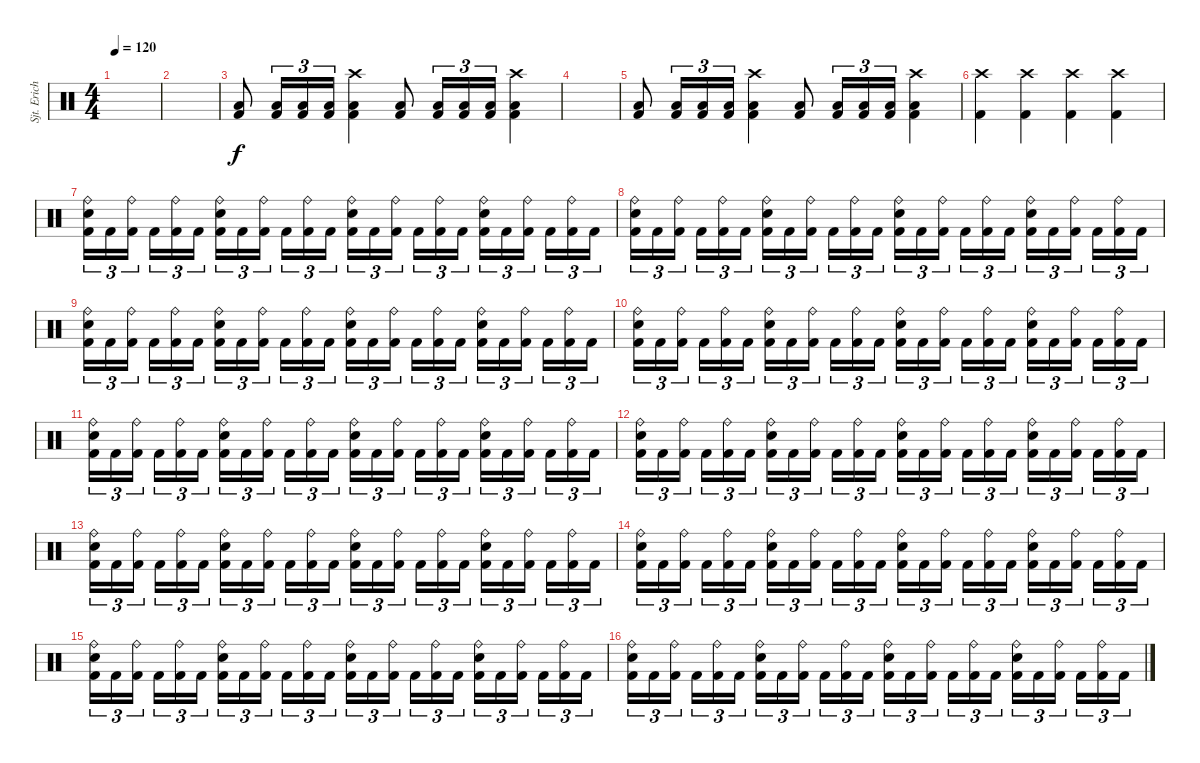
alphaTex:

\track ("Sjt. Erichsen" "Sjt. Erich") {instrument percussion}
\staff {score}
\articulation defaults
\ts (4 4)
\tempo 120
\clef neutral
\ks c
|
|
("Low Floor Tom (hit)" "Kick (hit) 2").8 ("Low Floor Tom (hit)" "Kick (hit) 2").16{tu (3 2)} ("Low Floor Tom (hit)" "Kick (hit) 2").16{tu (3 2)} ("Low Floor Tom (hit)" "Kick (hit) 2").16{tu (3 2)} ("Crash high (hit)" "Low Floor Tom (hit)" "Kick (hit) 2").4 ("Low Floor Tom (hit)" "Kick (hit) 2").8 ("Low Floor Tom (hit)" "Kick (hit) 2").16{tu (3 2)} ("Low Floor Tom (hit)" "Kick (hit) 2").16{tu (3 2)} ("Low Floor Tom (hit)" "Kick (hit) 2").16{tu (3 2)} ("Crash high (hit)" "Low Floor Tom (hit)" "Kick (hit) 2").4 |
|
("Low Floor Tom (hit)" "Kick (hit) 2").8 ("Low Floor Tom (hit)" "Kick (hit) 2").16{tu (3 2)} ("Low Floor Tom (hit)" "Kick (hit) 2").16{tu (3 2)} ("Low Floor Tom (hit)" "Kick (hit) 2").16{tu (3 2)} ("Crash high (hit)" "Low Floor Tom (hit)" "Kick (hit) 2").4 ("Low Floor Tom (hit)" "Kick (hit) 2").8 ("Low Floor Tom (hit)" "Kick (hit) 2").16{tu (3 2)} ("Low Floor Tom (hit)" "Kick (hit) 2").16{tu (3 2)} ("Low Floor Tom (hit)" "Kick (hit) 2").16{tu (3 2)} ("Crash high (hit)" "Low Floor Tom (hit)" "Kick (hit) 2").4 |
("Crash high (hit)" "Kick (hit) 2").4 ("Crash high (hit)" "Kick (hit) 2").4 ("Crash high (hit)" "Kick (hit) 2").4 ("Crash high (hit)" "Kick (hit) 2").4 |
("Ride (bell)" "Electric Snare (hit)" "Kick (hit) 2").16{tu (3 2)} "Kick (hit) 2".16{tu (3 2)} ("Ride (bell)" "Kick (hit) 2").16{tu (3 2)} "Kick (hit) 2".16{tu (3 2)} ("Ride (bell)" "Kick (hit) 2").16{tu (3 2)} "Kick (hit) 2".16{tu (3 2)} ("Ride (bell)" "Electric Snare (hit)" "Kick (hit) 2").16{tu (3 2)} "Kick (hit) 2".16{tu (3 2)} ("Ride (bell)" "Kick (hit) 2").16{tu (3 2)} "Kick (hit) 2".16{tu (3 2)} ("Ride (bell)" "Kick (hit) 2").16{tu (3 2)} "Kick (hit) 2".16{tu (3 2)} ("Ride (bell)" "Electric Snare (hit)" "Kick (hit) 2").16{tu (3 2)} "Kick (hit) 2".16{tu (3 2)} ("Ride (bell)" "Kick (hit) 2").16{tu (3 2)} "Kick (hit) 2".16{tu (3 2)} ("Ride (bell)" "Kick (hit) 2").16{tu (3 2)} "Kick (hit) 2".16{tu (3 2)} ("Ride (bell)" "Electric Snare (hit)" "Kick (hit) 2").16{tu (3 2)} "Kick (hit) 2".16{tu (3 2)} ("Ride (bell)" "Kick (hit) 2").16{tu (3 2)} "Kick (hit) 2".16{tu (3 2)} ("Ride (bell)" "Kick (hit) 2").16{tu (3 2)} "Kick (hit) 2".16{tu (3 2)} |
("Ride (bell)" "Electric Snare (hit)" "Kick (hit) 2").16{tu (3 2)} "Kick (hit) 2".16{tu (3 2)} ("Ride (bell)" "Kick (hit) 2").16{tu (3 2)} "Kick (hit) 2".16{tu (3 2)} ("Ride (bell)" "Kick (hit) 2").16{tu (3 2)} "Kick (hit) 2".16{tu (3 2)} ("Ride (bell)" "Electric Snare (hit)" "Kick (hit) 2").16{tu (3 2)} "Kick (hit) 2".16{tu (3 2)} ("Ride (bell)" "Kick (hit) 2").16{tu (3 2)} "Kick (hit) 2".16{tu (3 2)} ("Ride (bell)" "Kick (hit) 2").16{tu (3 2)} "Kick (hit) 2".16{tu (3 2)} ("Ride (bell)" "Electric Snare (hit)" "Kick (hit) 2").16{tu (3 2)} "Kick (hit) 2".16{tu (3 2)} ("Ride (bell)" "Kick (hit) 2").16{tu (3 2)} "Kick (hit) 2".16{tu (3 2)} ("Ride (bell)" "Kick (hit) 2").16{tu (3 2)} "Kick (hit) 2".16{tu (3 2)} ("Ride (bell)" "Electric Snare (hit)" "Kick (hit) 2").16{tu (3 2)} "Kick (hit) 2".16{tu (3 2)} ("Ride (bell)" "Kick (hit) 2").16{tu (3 2)} "Kick (hit) 2".16{tu (3 2)} ("Ride (bell)" "Kick (hit) 2").16{tu (3 2)} "Kick (hit) 2".16{tu (3 2)} |
("Ride (bell)" "Electric Snare (hit)" "Kick (hit) 2").16{tu (3 2)} "Kick (hit) 2".16{tu (3 2)} ("Ride (bell)" "Kick (hit) 2").16{tu (3 2)} "Kick (hit) 2".16{tu (3 2)} ("Ride (bell)" "Kick (hit) 2").16{tu (3 2)} "Kick (hit) 2".16{tu (3 2)} ("Ride (bell)" "Electric Snare (hit)" "Kick (hit) 2").16{tu (3 2)} "Kick (hit) 2".16{tu (3 2)} ("Ride (bell)" "Kick (hit) 2").16{tu (3 2)} "Kick (hit) 2".16{tu (3 2)} ("Ride (bell)" "Kick (hit) 2").16{tu (3 2)} "Kick (hit) 2".16{tu (3 2)} ("Ride (bell)" "Electric Snare (hit)" "Kick (hit) 2").16{tu (3 2)} "Kick (hit) 2".16{tu (3 2)} ("Ride (bell)" "Kick (hit) 2").16{tu (3 2)} "Kick (hit) 2".16{tu (3 2)} ("Ride (bell)" "Kick (hit) 2").16{tu (3 2)} "Kick (hit) 2".16{tu (3 2)} ("Ride (bell)" "Electric Snare (hit)" "Kick (hit) 2").16{tu (3 2)} "Kick (hit) 2".16{tu (3 2)} ("Ride (bell)" "Kick (hit) 2").16{tu (3 2)} "Kick (hit) 2".16{tu (3 2)} ("Ride (bell)" "Kick (hit) 2").16{tu (3 2)} "Kick (hit) 2".16{tu (3 2)} |
("Ride (bell)" "Electric Snare (hit)" "Kick (hit) 2").16{tu (3 2)} "Kick (hit) 2".16{tu (3 2)} ("Ride (bell)" "Kick (hit) 2").16{tu (3 2)} "Kick (hit) 2".16{tu (3 2)} ("Ride (bell)" "Kick (hit) 2").16{tu (3 2)} "Kick (hit) 2".16{tu (3 2)} ("Ride (bell)" "Electric Snare (hit)" "Kick (hit) 2").16{tu (3 2)} "Kick (hit) 2".16{tu (3 2)} ("Ride (bell)" "Kick (hit) 2").16{tu (3 2)} "Kick (hit) 2".16{tu (3 2)} ("Ride (bell)" "Kick (hit) 2").16{tu (3 2)} "Kick (hit) 2".16{tu (3 2)} ("Ride (bell)" "Electric Snare (hit)" "Kick (hit) 2").16{tu (3 2)} "Kick (hit) 2".16{tu (3 2)} ("Ride (bell)" "Kick (hit) 2").16{tu (3 2)} "Kick (hit) 2".16{tu (3 2)} ("Ride (bell)" "Kick (hit) 2").16{tu (3 2)} "Kick (hit) 2".16{tu (3 2)} ("Ride (bell)" "Electric Snare (hit)" "Kick (hit) 2").16{tu (3 2)} "Kick (hit) 2".16{tu (3 2)} ("Ride (bell)" "Kick (hit) 2").16{tu (3 2)} "Kick (hit) 2".16{tu (3 2)} ("Ride (bell)" "Kick (hit) 2").16{tu (3 2)} "Kick (hit) 2".16{tu (3 2)} |
("Ride (bell)" "Electric Snare (hit)" "Kick (hit) 2").16{tu (3 2)} "Kick (hit) 2".16{tu (3 2)} ("Ride (bell)" "Kick (hit) 2").16{tu (3 2)} "Kick (hit) 2".16{tu (3 2)} ("Ride (bell)" "Kick (hit) 2").16{tu (3 2)} "Kick (hit) 2".16{tu (3 2)} ("Ride (bell)" "Electric Snare (hit)" "Kick (hit) 2").16{tu (3 2)} "Kick (hit) 2".16{tu (3 2)} ("Ride (bell)" "Kick (hit) 2").16{tu (3 2)} "Kick (hit) 2".16{tu (3 2)} ("Ride (bell)" "Kick (hit) 2").16{tu (3 2)} "Kick (hit) 2".16{tu (3 2)} ("Ride (bell)" "Electric Snare (hit)" "Kick (hit) 2").16{tu (3 2)} "Kick (hit) 2".16{tu (3 2)} ("Ride (bell)" "Kick (hit) 2").16{tu (3 2)} "Kick (hit) 2".16{tu (3 2)} ("Ride (bell)" "Kick (hit) 2").16{tu (3 2)} "Kick (hit) 2".16{tu (3 2)} ("Ride (bell)" "Electric Snare (hit)" "Kick (hit) 2").16{tu (3 2)} "Kick (hit) 2".16{tu (3 2)} ("Ride (bell)" "Kick (hit) 2").16{tu (3 2)} "Kick (hit) 2".16{tu (3 2)} ("Ride (bell)" "Kick (hit) 2").16{tu (3 2)} "Kick (hit) 2".16{tu (3 2)} |
("Ride (bell)" "Electric Snare (hit)" "Kick (hit) 2").16{tu (3 2)} "Kick (hit) 2".16{tu (3 2)} ("Ride (bell)" "Kick (hit) 2").16{tu (3 2)} "Kick (hit) 2".16{tu (3 2)} ("Ride (bell)" "Kick (hit) 2").16{tu (3 2)} "Kick (hit) 2".16{tu (3 2)} ("Ride (bell)" "Electric Snare (hit)" "Kick (hit) 2").16{tu (3 2)} "Kick (hit) 2".16{tu (3 2)} ("Ride (bell)" "Kick (hit) 2").16{tu (3 2)} "Kick (hit) 2".16{tu (3 2)} ("Ride (bell)" "Kick (hit) 2").16{tu (3 2)} "Kick (hit) 2".16{tu (3 2)} ("Ride (bell)" "Electric Snare (hit)" "Kick (hit) 2").16{tu (3 2)} "Kick (hit) 2".16{tu (3 2)} ("Ride (bell)" "Kick (hit) 2").16{tu (3 2)} "Kick (hit) 2".16{tu (3 2)} ("Ride (bell)" "Kick (hit) 2").16{tu (3 2)} "Kick (hit) 2".16{tu (3 2)} ("Ride (bell)" "Electric Snare (hit)" "Kick (hit) 2").16{tu (3 2)} "Kick (hit) 2".16{tu (3 2)} ("Ride (bell)" "Kick (hit) 2").16{tu (3 2)} "Kick (hit) 2".16{tu (3 2)} ("Ride (bell)" "Kick (hit) 2").16{tu (3 2)} "Kick (hit) 2".16{tu (3 2)} |
("Ride (bell)" "Electric Snare (hit)" "Kick (hit) 2").16{tu (3 2)} "Kick (hit) 2".16{tu (3 2)} ("Ride (bell)" "Kick (hit) 2").16{tu (3 2)} "Kick (hit) 2".16{tu (3 2)} ("Ride (bell)" "Kick (hit) 2").16{tu (3 2)} "Kick (hit) 2".16{tu (3 2)} ("Ride (bell)" "Electric Snare (hit)" "Kick (hit) 2").16{tu (3 2)} "Kick (hit) 2".16{tu (3 2)} ("Ride (bell)" "Kick (hit) 2").16{tu (3 2)} "Kick (hit) 2".16{tu (3 2)} ("Ride (bell)" "Kick (hit) 2").16{tu (3 2)} "Kick (hit) 2".16{tu (3 2)} ("Ride (bell)" "Electric Snare (hit)" "Kick (hit) 2").16{tu (3 2)} "Kick (hit) 2".16{tu (3 2)} ("Ride (bell)" "Kick (hit) 2").16{tu (3 2)} "Kick (hit) 2".16{tu (3 2)} ("Ride (bell)" "Kick (hit) 2").16{tu (3 2)} "Kick (hit) 2".16{tu (3 2)} ("Ride (bell)" "Electric Snare (hit)" "Kick (hit) 2").16{tu (3 2)} "Kick (hit) 2".16{tu (3 2)} ("Ride (bell)" "Kick (hit) 2").16{tu (3 2)} "Kick (hit) 2".16{tu (3 2)} ("Ride (bell)" "Kick (hit) 2").16{tu (3 2)} "Kick (hit) 2".16{tu (3 2)} |
("Ride (bell)" "Electric Snare (hit)" "Kick (hit) 2").16{tu (3 2)} "Kick (hit) 2".16{tu (3 2)} ("Ride (bell)" "Kick (hit) 2").16{tu (3 2)} "Kick (hit) 2".16{tu (3 2)} ("Ride (bell)" "Kick (hit) 2").16{tu (3 2)} "Kick (hit) 2".16{tu (3 2)} ("Ride (bell)" "Electric Snare (hit)" "Kick (hit) 2").16{tu (3 2)} "Kick (hit) 2".16{tu (3 2)} ("Ride (bell)" "Kick (hit) 2").16{tu (3 2)} "Kick (hit) 2".16{tu (3 2)} ("Ride (bell)" "Kick (hit) 2").16{tu (3 2)} "Kick (hit) 2".16{tu (3 2)} ("Ride (bell)" "Electric Snare (hit)" "Kick (hit) 2").16{tu (3 2)} "Kick (hit) 2".16{tu (3 2)} ("Ride (bell)" "Kick (hit) 2").16{tu (3 2)} "Kick (hit) 2".16{tu (3 2)} ("Ride (bell)" "Kick (hit) 2").16{tu (3 2)} "Kick (hit) 2".16{tu (3 2)} ("Ride (bell)" "Electric Snare (hit)" "Kick (hit) 2").16{tu (3 2)} "Kick (hit) 2".16{tu (3 2)} ("Ride (bell)" "Kick (hit) 2").16{tu (3 2)} "Kick (hit) 2".16{tu (3 2)} ("Ride (bell)" "Kick (hit) 2").16{tu (3 2)} "Kick (hit) 2".16{tu (3 2)} |
("Ride (bell)" "Electric Snare (hit)" "Kick (hit) 2").16{tu (3 2)} "Kick (hit) 2".16{tu (3 2)} ("Ride (bell)" "Kick (hit) 2").16{tu (3 2)} "Kick (hit) 2".16{tu (3 2)} ("Ride (bell)" "Kick (hit) 2").16{tu (3 2)} "Kick (hit) 2".16{tu (3 2)} ("Ride (bell)" "Electric Snare (hit)" "Kick (hit) 2").16{tu (3 2)} "Kick (hit) 2".16{tu (3 2)} ("Ride (bell)" "Kick (hit) 2").16{tu (3 2)} "Kick (hit) 2".16{tu (3 2)} ("Ride (bell)" "Kick (hit) 2").16{tu (3 2)} "Kick (hit) 2".16{tu (3 2)} ("Ride (bell)" "Electric Snare (hit)" "Kick (hit) 2").16{tu (3 2)} "Kick (hit) 2".16{tu (3 2)} ("Ride (bell)" "Kick (hit) 2").16{tu (3 2)} "Kick (hit) 2".16{tu (3 2)} ("Ride (bell)" "Kick (hit) 2").16{tu (3 2)} "Kick (hit) 2".16{tu (3 2)} ("Ride (bell)" "Electric Snare (hit)" "Kick (hit) 2").16{tu (3 2)} "Kick (hit) 2".16{tu (3 2)} ("Ride (bell)" "Kick (hit) 2").16{tu (3 2)} "Kick (hit) 2".16{tu (3 2)} ("Ride (bell)" "Kick (hit) 2").16{tu (3 2)} "Kick (hit) 2".16{tu (3 2)} |
("Ride (bell)" "Electric Snare (hit)" "Kick (hit) 2").16{tu (3 2)} "Kick (hit) 2".16{tu (3 2)} ("Ride (bell)" "Kick (hit) 2").16{tu (3 2)} "Kick (hit) 2".16{tu (3 2)} ("Ride (bell)" "Kick (hit) 2").16{tu (3 2)} "Kick (hit) 2".16{tu (3 2)} ("Ride (bell)" "Electric Snare (hit)" "Kick (hit) 2").16{tu (3 2)} "Kick (hit) 2".16{tu (3 2)} ("Ride (bell)" "Kick (hit) 2").16{tu (3 2)} "Kick (hit) 2".16{tu (3 2)} ("Ride (bell)" "Kick (hit) 2").16{tu (3 2)} "Kick (hit) 2".16{tu (3 2)} ("Ride (bell)" "Electric Snare (hit)" "Kick (hit) 2").16{tu (3 2)} "Kick (hit) 2".16{tu (3 2)} ("Ride (bell)" "Kick (hit) 2").16{tu (3 2)} "Kick (hit) 2".16{tu (3 2)} ("Ride (bell)" "Kick (hit) 2").16{tu (3 2)} "Kick (hit) 2".16{tu (3 2)} ("Ride (bell)" "Electric Snare (hit)" "Kick (hit) 2").16{tu (3 2)} "Kick (hit) 2".16{tu (3 2)} ("Ride (bell)" "Kick (hit) 2").16{tu (3 2)} "Kick (hit) 2".16{tu (3 2)} ("Ride (bell)" "Kick (hit) 2").16{tu (3 2)} "Kick (hit) 2".16{tu (3 2)}
